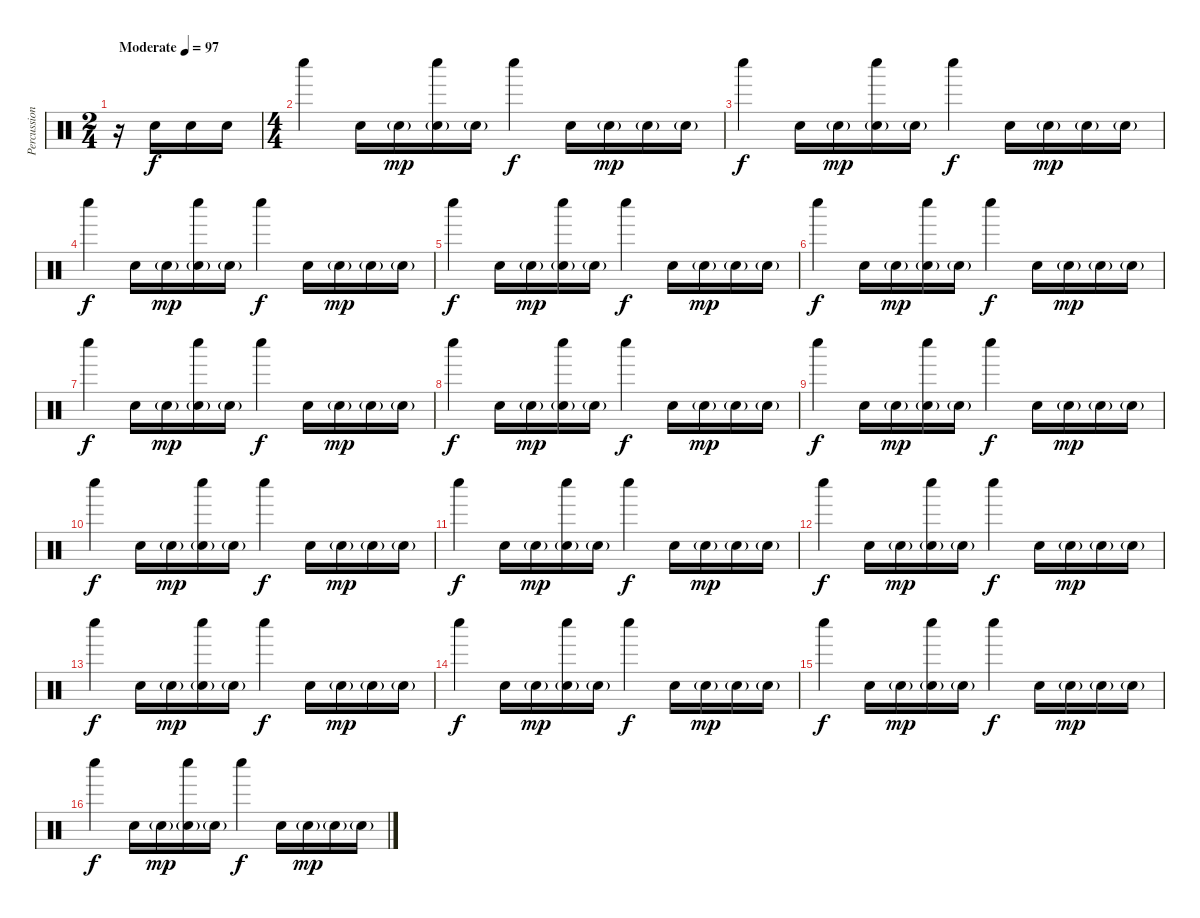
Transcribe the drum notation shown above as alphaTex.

\track ("Percussion" "Percussion") {instrument percussion}
\staff {score}
\articulation defaults
\ts (2 4)
\tempo (97 "Moderate")
\clef neutral
\ks c
r.16{dy f} "Electric Snare (hit)".16 "Electric Snare (hit)".16 "Electric Snare (hit)".16 |
\ts (4 4)
"Whistle low (hit)".4 "Electric Snare (hit)".16 "Electric Snare (hit)"{g}.16{dy mp} ("Whistle low (hit)" "Electric Snare (hit)"{g}).16 "Electric Snare (hit)"{g}.16 "Whistle low (hit)".4{dy f} "Electric Snare (hit)".16 "Electric Snare (hit)"{g}.16{dy mp} "Electric Snare (hit)"{g}.16 "Electric Snare (hit)"{g}.16 |
"Whistle low (hit)".4{dy f} "Electric Snare (hit)".16 "Electric Snare (hit)"{g}.16{dy mp} ("Whistle low (hit)" "Electric Snare (hit)"{g}).16 "Electric Snare (hit)"{g}.16 "Whistle low (hit)".4{dy f} "Electric Snare (hit)".16 "Electric Snare (hit)"{g}.16{dy mp} "Electric Snare (hit)"{g}.16 "Electric Snare (hit)"{g}.16 |
"Whistle low (hit)".4{dy f} "Electric Snare (hit)".16 "Electric Snare (hit)"{g}.16{dy mp} ("Whistle low (hit)" "Electric Snare (hit)"{g}).16 "Electric Snare (hit)"{g}.16 "Whistle low (hit)".4{dy f} "Electric Snare (hit)".16 "Electric Snare (hit)"{g}.16{dy mp} "Electric Snare (hit)"{g}.16 "Electric Snare (hit)"{g}.16 |
"Whistle low (hit)".4{dy f} "Electric Snare (hit)".16 "Electric Snare (hit)"{g}.16{dy mp} ("Whistle low (hit)" "Electric Snare (hit)"{g}).16 "Electric Snare (hit)"{g}.16 "Whistle low (hit)".4{dy f} "Electric Snare (hit)".16 "Electric Snare (hit)"{g}.16{dy mp} "Electric Snare (hit)"{g}.16 "Electric Snare (hit)"{g}.16 |
"Whistle low (hit)".4{dy f} "Electric Snare (hit)".16 "Electric Snare (hit)"{g}.16{dy mp} ("Whistle low (hit)" "Electric Snare (hit)"{g}).16 "Electric Snare (hit)"{g}.16 "Whistle low (hit)".4{dy f} "Electric Snare (hit)".16 "Electric Snare (hit)"{g}.16{dy mp} "Electric Snare (hit)"{g}.16 "Electric Snare (hit)"{g}.16 |
"Whistle low (hit)".4{dy f} "Electric Snare (hit)".16 "Electric Snare (hit)"{g}.16{dy mp} ("Whistle low (hit)" "Electric Snare (hit)"{g}).16 "Electric Snare (hit)"{g}.16 "Whistle low (hit)".4{dy f} "Electric Snare (hit)".16 "Electric Snare (hit)"{g}.16{dy mp} "Electric Snare (hit)"{g}.16 "Electric Snare (hit)"{g}.16 |
"Whistle low (hit)".4{dy f} "Electric Snare (hit)".16 "Electric Snare (hit)"{g}.16{dy mp} ("Whistle low (hit)" "Electric Snare (hit)"{g}).16 "Electric Snare (hit)"{g}.16 "Whistle low (hit)".4{dy f} "Electric Snare (hit)".16 "Electric Snare (hit)"{g}.16{dy mp} "Electric Snare (hit)"{g}.16 "Electric Snare (hit)"{g}.16 |
"Whistle low (hit)".4{dy f} "Electric Snare (hit)".16 "Electric Snare (hit)"{g}.16{dy mp} ("Whistle low (hit)" "Electric Snare (hit)"{g}).16 "Electric Snare (hit)"{g}.16 "Whistle low (hit)".4{dy f} "Electric Snare (hit)".16 "Electric Snare (hit)"{g}.16{dy mp} "Electric Snare (hit)"{g}.16 "Electric Snare (hit)"{g}.16 |
"Whistle low (hit)".4{dy f} "Electric Snare (hit)".16 "Electric Snare (hit)"{g}.16{dy mp} ("Whistle low (hit)" "Electric Snare (hit)"{g}).16 "Electric Snare (hit)"{g}.16 "Whistle low (hit)".4{dy f} "Electric Snare (hit)".16 "Electric Snare (hit)"{g}.16{dy mp} "Electric Snare (hit)"{g}.16 "Electric Snare (hit)"{g}.16 |
"Whistle low (hit)".4{dy f} "Electric Snare (hit)".16 "Electric Snare (hit)"{g}.16{dy mp} ("Whistle low (hit)" "Electric Snare (hit)"{g}).16 "Electric Snare (hit)"{g}.16 "Whistle low (hit)".4{dy f} "Electric Snare (hit)".16 "Electric Snare (hit)"{g}.16{dy mp} "Electric Snare (hit)"{g}.16 "Electric Snare (hit)"{g}.16 |
"Whistle low (hit)".4{dy f} "Electric Snare (hit)".16 "Electric Snare (hit)"{g}.16{dy mp} ("Whistle low (hit)" "Electric Snare (hit)"{g}).16 "Electric Snare (hit)"{g}.16 "Whistle low (hit)".4{dy f} "Electric Snare (hit)".16 "Electric Snare (hit)"{g}.16{dy mp} "Electric Snare (hit)"{g}.16 "Electric Snare (hit)"{g}.16 |
"Whistle low (hit)".4{dy f} "Electric Snare (hit)".16 "Electric Snare (hit)"{g}.16{dy mp} ("Whistle low (hit)" "Electric Snare (hit)"{g}).16 "Electric Snare (hit)"{g}.16 "Whistle low (hit)".4{dy f} "Electric Snare (hit)".16 "Electric Snare (hit)"{g}.16{dy mp} "Electric Snare (hit)"{g}.16 "Electric Snare (hit)"{g}.16 |
"Whistle low (hit)".4{dy f} "Electric Snare (hit)".16 "Electric Snare (hit)"{g}.16{dy mp} ("Whistle low (hit)" "Electric Snare (hit)"{g}).16 "Electric Snare (hit)"{g}.16 "Whistle low (hit)".4{dy f} "Electric Snare (hit)".16 "Electric Snare (hit)"{g}.16{dy mp} "Electric Snare (hit)"{g}.16 "Electric Snare (hit)"{g}.16 |
"Whistle low (hit)".4{dy f} "Electric Snare (hit)".16 "Electric Snare (hit)"{g}.16{dy mp} ("Whistle low (hit)" "Electric Snare (hit)"{g}).16 "Electric Snare (hit)"{g}.16 "Whistle low (hit)".4{dy f} "Electric Snare (hit)".16 "Electric Snare (hit)"{g}.16{dy mp} "Electric Snare (hit)"{g}.16 "Electric Snare (hit)"{g}.16 |
"Whistle low (hit)".4{dy f} "Electric Snare (hit)".16 "Electric Snare (hit)"{g}.16{dy mp} ("Whistle low (hit)" "Electric Snare (hit)"{g}).16 "Electric Snare (hit)"{g}.16 "Whistle low (hit)".4{dy f} "Electric Snare (hit)".16 "Electric Snare (hit)"{g}.16{dy mp} "Electric Snare (hit)"{g}.16 "Electric Snare (hit)"{g}.16
